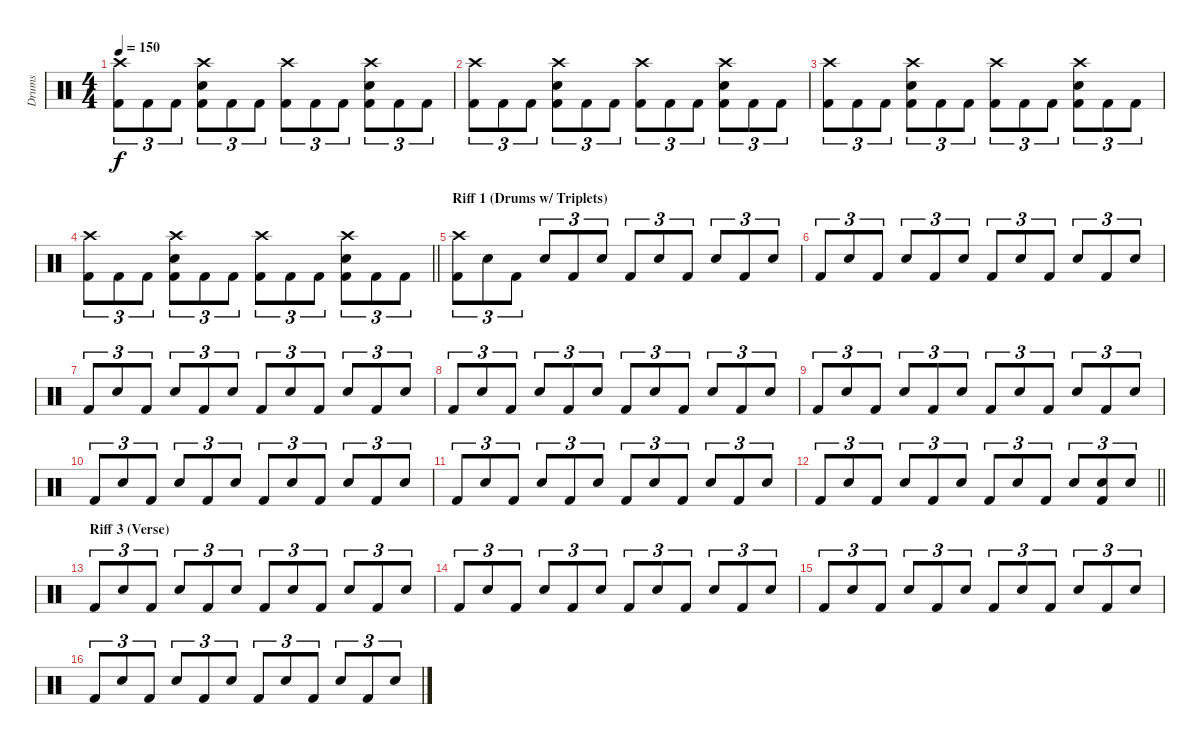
\track ("Drums" "Drums") {instrument percussion}
\staff {score}
\articulation defaults
\ts (4 4)
\tempo 150
\clef neutral
\ks c
("Crash high (hit)" "Kick (hit) 2").8{tu (3 2) dy f} "Kick (hit) 2".8{tu (3 2)} "Kick (hit) 2".8{tu (3 2)} ("Crash high (hit)" "Snare (hit) 2" "Kick (hit) 2").8{tu (3 2)} "Kick (hit) 2".8{tu (3 2)} "Kick (hit) 2".8{tu (3 2)} ("Crash high (hit)" "Kick (hit) 2").8{tu (3 2)} "Kick (hit) 2".8{tu (3 2)} "Kick (hit) 2".8{tu (3 2)} ("Crash high (hit)" "Snare (hit) 2" "Kick (hit) 2").8{tu (3 2)} "Kick (hit) 2".8{tu (3 2)} "Kick (hit) 2".8{tu (3 2)} |
("Crash high (hit)" "Kick (hit) 2").8{tu (3 2)} "Kick (hit) 2".8{tu (3 2)} "Kick (hit) 2".8{tu (3 2)} ("Crash high (hit)" "Snare (hit) 2" "Kick (hit) 2").8{tu (3 2)} "Kick (hit) 2".8{tu (3 2)} "Kick (hit) 2".8{tu (3 2)} ("Crash high (hit)" "Kick (hit) 2").8{tu (3 2)} "Kick (hit) 2".8{tu (3 2)} "Kick (hit) 2".8{tu (3 2)} ("Crash high (hit)" "Snare (hit) 2" "Kick (hit) 2").8{tu (3 2)} "Kick (hit) 2".8{tu (3 2)} "Kick (hit) 2".8{tu (3 2)} |
("Crash high (hit)" "Kick (hit) 2").8{tu (3 2)} "Kick (hit) 2".8{tu (3 2)} "Kick (hit) 2".8{tu (3 2)} ("Crash high (hit)" "Snare (hit) 2" "Kick (hit) 2").8{tu (3 2)} "Kick (hit) 2".8{tu (3 2)} "Kick (hit) 2".8{tu (3 2)} ("Crash high (hit)" "Kick (hit) 2").8{tu (3 2)} "Kick (hit) 2".8{tu (3 2)} "Kick (hit) 2".8{tu (3 2)} ("Crash high (hit)" "Snare (hit) 2" "Kick (hit) 2").8{tu (3 2)} "Kick (hit) 2".8{tu (3 2)} "Kick (hit) 2".8{tu (3 2)} |
\barLineRight lightlight
("Crash high (hit)" "Kick (hit) 2").8{tu (3 2)} "Kick (hit) 2".8{tu (3 2)} "Kick (hit) 2".8{tu (3 2)} ("Crash high (hit)" "Snare (hit) 2" "Kick (hit) 2").8{tu (3 2)} "Kick (hit) 2".8{tu (3 2)} "Kick (hit) 2".8{tu (3 2)} ("Crash high (hit)" "Kick (hit) 2").8{tu (3 2)} "Kick (hit) 2".8{tu (3 2)} "Kick (hit) 2".8{tu (3 2)} ("Crash high (hit)" "Snare (hit) 2" "Kick (hit) 2").8{tu (3 2)} "Kick (hit) 2".8{tu (3 2)} "Kick (hit) 2".8{tu (3 2)} |
\section ("" "Riff 1 (Drums w/ Triplets)")
("Crash high (hit)" "Kick (hit) 2").8{tu (3 2)} "Snare (hit) 2".8{tu (3 2)} "Kick (hit) 2".8{tu (3 2)} "Snare (hit) 2".8{tu (3 2)} "Kick (hit) 2".8{tu (3 2)} "Snare (hit) 2".8{tu (3 2)} "Kick (hit) 2".8{tu (3 2)} "Snare (hit) 2".8{tu (3 2)} "Kick (hit) 2".8{tu (3 2)} "Snare (hit) 2".8{tu (3 2)} "Kick (hit) 2".8{tu (3 2)} "Snare (hit) 2".8{tu (3 2)} |
"Kick (hit) 2".8{tu (3 2)} "Snare (hit) 2".8{tu (3 2)} "Kick (hit) 2".8{tu (3 2)} "Snare (hit) 2".8{tu (3 2)} "Kick (hit) 2".8{tu (3 2)} "Snare (hit) 2".8{tu (3 2)} "Kick (hit) 2".8{tu (3 2)} "Snare (hit) 2".8{tu (3 2)} "Kick (hit) 2".8{tu (3 2)} "Snare (hit) 2".8{tu (3 2)} "Kick (hit) 2".8{tu (3 2)} "Snare (hit) 2".8{tu (3 2)} |
"Kick (hit) 2".8{tu (3 2)} "Snare (hit) 2".8{tu (3 2)} "Kick (hit) 2".8{tu (3 2)} "Snare (hit) 2".8{tu (3 2)} "Kick (hit) 2".8{tu (3 2)} "Snare (hit) 2".8{tu (3 2)} "Kick (hit) 2".8{tu (3 2)} "Snare (hit) 2".8{tu (3 2)} "Kick (hit) 2".8{tu (3 2)} "Snare (hit) 2".8{tu (3 2)} "Kick (hit) 2".8{tu (3 2)} "Snare (hit) 2".8{tu (3 2)} |
"Kick (hit) 2".8{tu (3 2)} "Snare (hit) 2".8{tu (3 2)} "Kick (hit) 2".8{tu (3 2)} "Snare (hit) 2".8{tu (3 2)} "Kick (hit) 2".8{tu (3 2)} "Snare (hit) 2".8{tu (3 2)} "Kick (hit) 2".8{tu (3 2)} "Snare (hit) 2".8{tu (3 2)} "Kick (hit) 2".8{tu (3 2)} "Snare (hit) 2".8{tu (3 2)} "Kick (hit) 2".8{tu (3 2)} "Snare (hit) 2".8{tu (3 2)} |
"Kick (hit) 2".8{tu (3 2)} "Snare (hit) 2".8{tu (3 2)} "Kick (hit) 2".8{tu (3 2)} "Snare (hit) 2".8{tu (3 2)} "Kick (hit) 2".8{tu (3 2)} "Snare (hit) 2".8{tu (3 2)} "Kick (hit) 2".8{tu (3 2)} "Snare (hit) 2".8{tu (3 2)} "Kick (hit) 2".8{tu (3 2)} "Snare (hit) 2".8{tu (3 2)} "Kick (hit) 2".8{tu (3 2)} "Snare (hit) 2".8{tu (3 2)} |
"Kick (hit) 2".8{tu (3 2)} "Snare (hit) 2".8{tu (3 2)} "Kick (hit) 2".8{tu (3 2)} "Snare (hit) 2".8{tu (3 2)} "Kick (hit) 2".8{tu (3 2)} "Snare (hit) 2".8{tu (3 2)} "Kick (hit) 2".8{tu (3 2)} "Snare (hit) 2".8{tu (3 2)} "Kick (hit) 2".8{tu (3 2)} "Snare (hit) 2".8{tu (3 2)} "Kick (hit) 2".8{tu (3 2)} "Snare (hit) 2".8{tu (3 2)} |
"Kick (hit) 2".8{tu (3 2)} "Snare (hit) 2".8{tu (3 2)} "Kick (hit) 2".8{tu (3 2)} "Snare (hit) 2".8{tu (3 2)} "Kick (hit) 2".8{tu (3 2)} "Snare (hit) 2".8{tu (3 2)} "Kick (hit) 2".8{tu (3 2)} "Snare (hit) 2".8{tu (3 2)} "Kick (hit) 2".8{tu (3 2)} "Snare (hit) 2".8{tu (3 2)} "Kick (hit) 2".8{tu (3 2)} "Snare (hit) 2".8{tu (3 2)} |
\barLineRight lightlight "Kick (hit) 2".8{tu (3 2)} "Snare (hit) 2".8{tu (3 2)} "Kick (hit) 2".8{tu (3 2)} "Snare (hit) 2".8{tu (3 2)} "Kick (hit) 2".8{tu (3 2)} "Snare (hit) 2".8{tu (3 2)} "Kick (hit) 2".8{tu (3 2)} "Snare (hit) 2".8{tu (3 2)} "Kick (hit) 2".8{tu (3 2)} "Snare (hit) 2".8{tu (3 2)}
("Snare (hit) 2" "Kick (hit) 2").8{tu (3 2)} "Snare (hit) 2".8{tu (3 2)} |
\section ("" "Riff 3 (Verse)")
"Kick (hit) 2".8{tu (3 2)} "Snare (hit) 2".8{tu (3 2)} "Kick (hit) 2".8{tu (3 2)} "Snare (hit) 2".8{tu (3 2)} "Kick (hit) 2".8{tu (3 2)} "Snare (hit) 2".8{tu (3 2)} "Kick (hit) 2".8{tu (3 2)} "Snare (hit) 2".8{tu (3 2)} "Kick (hit) 2".8{tu (3 2)} "Snare (hit) 2".8{tu (3 2)} "Kick (hit) 2".8{tu (3 2)} "Snare (hit) 2".8{tu (3 2)} |
"Kick (hit) 2".8{tu (3 2)} "Snare (hit) 2".8{tu (3 2)} "Kick (hit) 2".8{tu (3 2)} "Snare (hit) 2".8{tu (3 2)} "Kick (hit) 2".8{tu (3 2)} "Snare (hit) 2".8{tu (3 2)} "Kick (hit) 2".8{tu (3 2)} "Snare (hit) 2".8{tu (3 2)} "Kick (hit) 2".8{tu (3 2)} "Snare (hit) 2".8{tu (3 2)} "Kick (hit) 2".8{tu (3 2)} "Snare (hit) 2".8{tu (3 2)} |
"Kick (hit) 2".8{tu (3 2)} "Snare (hit) 2".8{tu (3 2)} "Kick (hit) 2".8{tu (3 2)} "Snare (hit) 2".8{tu (3 2)} "Kick (hit) 2".8{tu (3 2)} "Snare (hit) 2".8{tu (3 2)} "Kick (hit) 2".8{tu (3 2)} "Snare (hit) 2".8{tu (3 2)} "Kick (hit) 2".8{tu (3 2)} "Snare (hit) 2".8{tu (3 2)} "Kick (hit) 2".8{tu (3 2)} "Snare (hit) 2".8{tu (3 2)} |
"Kick (hit) 2".8{tu (3 2)} "Snare (hit) 2".8{tu (3 2)} "Kick (hit) 2".8{tu (3 2)} "Snare (hit) 2".8{tu (3 2)} "Kick (hit) 2".8{tu (3 2)} "Snare (hit) 2".8{tu (3 2)} "Kick (hit) 2".8{tu (3 2)} "Snare (hit) 2".8{tu (3 2)} "Kick (hit) 2".8{tu (3 2)} "Snare (hit) 2".8{tu (3 2)} "Kick (hit) 2".8{tu (3 2)} "Snare (hit) 2".8{tu (3 2)}
